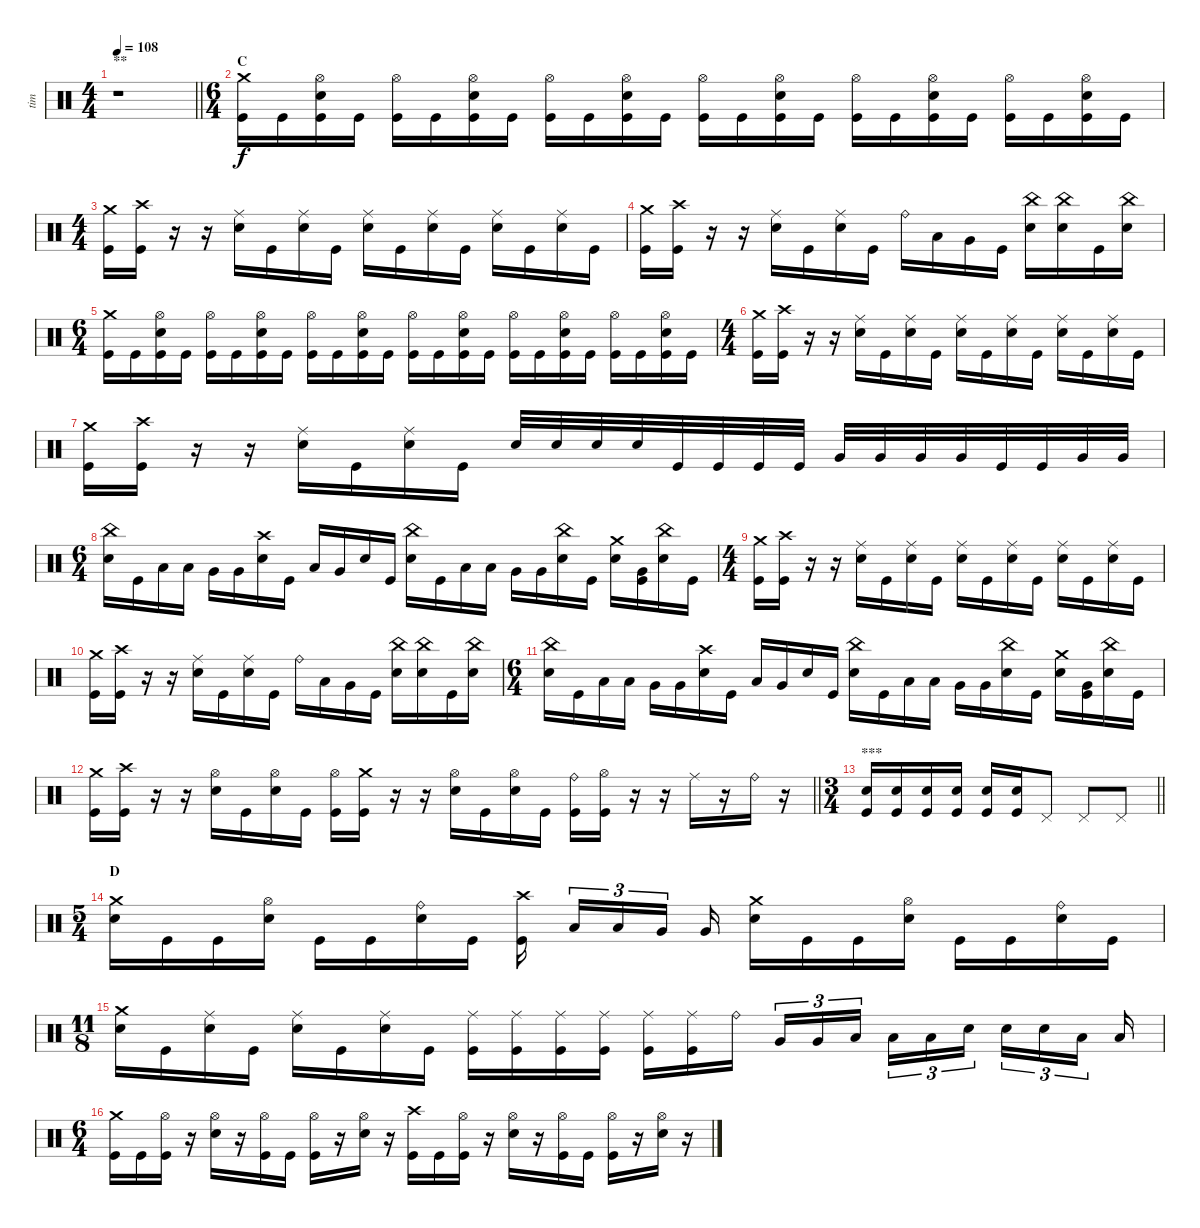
\track ("tim" "tim") {instrument percussion}
\staff {score}
\articulation defaults
\ts (4 4)
\section ("" "**")
\tempo 108
\clef neutral
\barLineRight lightlight
\ks c
r.1{dy f} |
\ts (6 4)
\section ("" "C")
("Crash medium (hit)" "Kick (hit)").16 "Kick (hit)".16 ("Hi-Hat (open)" "Snare (hit) 2" "Kick (hit)").16 "Kick (hit)".16 ("Hi-Hat (open)" "Kick (hit)").16 "Kick (hit)".16 ("Hi-Hat (open)" "Snare (hit) 2" "Kick (hit)").16 "Kick (hit)".16 ("Hi-Hat (open)" "Kick (hit)").16 "Kick (hit)".16 ("Hi-Hat (open)" "Snare (hit) 2" "Kick (hit)").16 "Kick (hit)".16 ("Hi-Hat (open)" "Kick (hit)").16 "Kick (hit)".16 ("Hi-Hat (open)" "Snare (hit) 2" "Kick (hit)").16 "Kick (hit)".16 ("Hi-Hat (open)" "Kick (hit)").16 "Kick (hit)".16 ("Hi-Hat (open)" "Snare (hit) 2" "Kick (hit)").16 "Kick (hit)".16 ("Hi-Hat (open)" "Kick (hit)").16 "Kick (hit)".16 ("Hi-Hat (open)" "Snare (hit) 2" "Kick (hit)").16 "Kick (hit)".16 |
\ts (4 4)
("Crash medium (hit)" "Kick (hit)").16 ("Crash high (hit)" "Kick (hit)").16 r.16 r.16 ("Ride (middle)" "Snare (hit) 2").16 "Kick (hit)".16 ("Ride (middle)" "Snare (hit) 2").16 "Kick (hit)".16 ("Ride (middle)" "Snare (hit) 2").16 "Kick (hit)".16 ("Ride (middle)" "Snare (hit) 2").16 "Kick (hit)".16 ("Ride (middle)" "Snare (hit) 2").16 "Kick (hit)".16 ("Ride (middle)" "Snare (hit) 2").16 "Kick (hit)".16 |
("Crash medium (hit)" "Kick (hit)").16 ("Crash high (hit)" "Kick (hit)").16 r.16 r.16 ("Ride (middle)" "Snare (hit) 2").16 "Kick (hit)".16 ("Ride (middle)" "Snare (hit) 2").16 "Kick (hit)".16 "Ride (bell)".16 "Low Tom (hit)".16 "Very Low Tom (hit)".16 "Kick (hit)".16 ("China (hit)" "Snare (hit) 2").16 ("China (hit)" "Snare (hit) 2").16 "Kick (hit)".16 ("China (hit)" "Snare (hit) 2").16 |
\ts (6 4)
("Crash medium (hit)" "Kick (hit)").16 "Kick (hit)".16 ("Hi-Hat (open)" "Snare (hit) 2" "Kick (hit)").16 "Kick (hit)".16 ("Hi-Hat (open)" "Kick (hit)").16 "Kick (hit)".16 ("Hi-Hat (open)" "Snare (hit) 2" "Kick (hit)").16 "Kick (hit)".16 ("Hi-Hat (open)" "Kick (hit)").16 "Kick (hit)".16 ("Hi-Hat (open)" "Snare (hit) 2" "Kick (hit)").16 "Kick (hit)".16 ("Hi-Hat (open)" "Kick (hit)").16 "Kick (hit)".16 ("Hi-Hat (open)" "Snare (hit) 2" "Kick (hit)").16 "Kick (hit)".16 ("Hi-Hat (open)" "Kick (hit)").16 "Kick (hit)".16 ("Hi-Hat (open)" "Snare (hit) 2" "Kick (hit)").16 "Kick (hit)".16 ("Hi-Hat (open)" "Kick (hit)").16 "Kick (hit)".16 ("Hi-Hat (open)" "Snare (hit) 2" "Kick (hit)").16 "Kick (hit)".16 |
\ts (4 4)
("Crash medium (hit)" "Kick (hit)").16 ("Crash high (hit)" "Kick (hit)").16 r.16 r.16 ("Ride (middle)" "Snare (hit) 2").16 "Kick (hit)".16 ("Ride (middle)" "Snare (hit) 2").16 "Kick (hit)".16 ("Ride (middle)" "Snare (hit) 2").16 "Kick (hit)".16 ("Ride (middle)" "Snare (hit) 2").16 "Kick (hit)".16 ("Ride (middle)" "Snare (hit) 2").16 "Kick (hit)".16 ("Ride (middle)" "Snare (hit) 2").16 "Kick (hit)".16 |
("Crash medium (hit)" "Kick (hit)").16 ("Crash high (hit)" "Kick (hit)").16 r.16 r.16 ("Ride (middle)" "Snare (hit) 2").16 "Kick (hit)".16 ("Ride (middle)" "Snare (hit) 2").16 "Kick (hit)".16 "Snare (hit) 2".32 "Snare (hit) 2".32 "Snare (hit) 2".32 "Snare (hit) 2".32 "Kick (hit)".32 "Kick (hit)".32 "Kick (hit)".32 "Kick (hit)".32 "Very Low Tom (hit)".32 "Very Low Tom (hit)".32 "Very Low Tom (hit)".32 "Very Low Tom (hit)".32 "Kick (hit)".32 "Kick (hit)".32 "Very Low Tom (hit)".32 "Very Low Tom (hit)".32 |
\ts (6 4)
("China (hit)" "Snare (hit) 2").16 "Kick (hit)".16 "Low Tom (hit)".16 "Low Tom (hit)".16 "Very Low Tom (hit)".16 "Very Low Tom (hit)".16 ("Crash high (hit)" "Snare (hit) 2").16 "Kick (hit)".16 "Low Tom (hit)".16 "Very Low Tom (hit)".16 "Snare (hit) 2".16 "Kick (hit)".16 ("China (hit)" "Snare (hit) 2").16 "Kick (hit)".16 "Low Tom (hit)".16 "Low Tom (hit)".16 "Very Low Tom (hit)".16 "Very Low Tom (hit)".16 ("China (hit)" "Snare (hit) 2").16 "Kick (hit)".16 ("Crash medium (hit)" "Snare (hit) 2").16 ("Very Low Tom (hit)" "Kick (hit)").16 ("China (hit)" "Snare (hit) 2").16 "Kick (hit)".16 |
\ts (4 4)
("Crash medium (hit)" "Kick (hit)").16 ("Crash high (hit)" "Kick (hit)").16 r.16 r.16 ("Ride (middle)" "Snare (hit) 2").16 "Kick (hit)".16 ("Ride (middle)" "Snare (hit) 2").16 "Kick (hit)".16 ("Ride (middle)" "Snare (hit) 2").16 "Kick (hit)".16 ("Ride (middle)" "Snare (hit) 2").16 "Kick (hit)".16 ("Ride (middle)" "Snare (hit) 2").16 "Kick (hit)".16 ("Ride (middle)" "Snare (hit) 2").16 "Kick (hit)".16 |
("Crash medium (hit)" "Kick (hit)").16 ("Crash high (hit)" "Kick (hit)").16 r.16 r.16 ("Ride (middle)" "Snare (hit) 2").16 "Kick (hit)".16 ("Ride (middle)" "Snare (hit) 2").16 "Kick (hit)".16 "Ride (bell)".16 "Low Tom (hit)".16 "Very Low Tom (hit)".16 "Kick (hit)".16 ("China (hit)" "Snare (hit) 2").16 ("China (hit)" "Snare (hit) 2").16 "Kick (hit)".16 ("China (hit)" "Snare (hit) 2").16 |
\ts (6 4)
("China (hit)" "Snare (hit) 2").16 "Kick (hit)".16 "Low Tom (hit)".16 "Low Tom (hit)".16 "Very Low Tom (hit)".16 "Very Low Tom (hit)".16 ("Crash high (hit)" "Snare (hit) 2").16 "Kick (hit)".16 "Low Tom (hit)".16 "Very Low Tom (hit)".16 "Snare (hit) 2".16 "Kick (hit)".16 ("China (hit)" "Snare (hit) 2").16 "Kick (hit)".16 "Low Tom (hit)".16 "Low Tom (hit)".16 "Very Low Tom (hit)".16 "Very Low Tom (hit)".16 ("China (hit)" "Snare (hit) 2").16 "Kick (hit)".16 ("Crash medium (hit)" "Snare (hit) 2").16 ("Very Low Tom (hit)" "Kick (hit)").16 ("China (hit)" "Snare (hit) 2").16 "Kick (hit)".16 |
\barLineRight lightlight
("Crash medium (hit)" "Kick (hit)").16 ("Crash high (hit)" "Kick (hit)").16 r.16 r.16 ("Hi-Hat (open)" "Snare (hit) 2").16 "Kick (hit)".16 ("Hi-Hat (open)" "Snare (hit) 2").16 "Kick (hit)".16 ("Hi-Hat (open)" "Kick (hit)").16 ("Crash medium (hit)" "Kick (hit)").16 r.16 r.16 ("Hi-Hat (open)" "Snare (hit) 2").16 "Kick (hit)".16 ("Hi-Hat (open)" "Snare (hit) 2").16 "Kick (hit)".16 ("Ride (bell)" "Kick (hit)").16 ("Hi-Hat (open)" "Kick (hit)").16 r.16 r.16 "Ride (middle)".16 r.16 "Ride (bell)".16 r.16 |
\ts (3 4)
\section ("" "***")
\barLineRight lightlight
("Snare (hit) 2" "Kick (hit)").16 ("Snare (hit) 2" "Kick (hit)").16 ("Snare (hit) 2" "Kick (hit)").16 ("Snare (hit) 2" "Kick (hit)").16 ("Snare (hit) 2" "Kick (hit)").16 ("Snare (hit) 2" "Kick (hit)").16 "Pedal Hi-Hat (hit)".8 "Pedal Hi-Hat (hit)".8 "Pedal Hi-Hat (hit)".8 |
\ts (5 4)
\section ("" "D")
("Crash medium (hit)" "Snare (hit) 2").16 "Kick (hit)".16 "Kick (hit)".16 ("Hi-Hat (open)" "Snare (hit) 2").16 "Kick (hit)".16 "Kick (hit)".16 ("Ride (bell)" "Snare (hit) 2").16 "Kick (hit)".16 ("Crash high (hit)" "Kick (hit)").16{beam splitsecondary} "Low Tom (hit)".16{tu (3 2)} "Low Tom (hit)".16{tu (3 2)} "Very Low Tom (hit)".16{tu (3 2) beam splitsecondary} "Very Low Tom (hit)".16 ("Crash medium (hit)" "Snare (hit) 2").16 "Kick (hit)".16 "Kick (hit)".16 ("Hi-Hat (open)" "Snare (hit) 2").16 "Kick (hit)".16 "Kick (hit)".16 ("Ride (bell)" "Snare (hit) 2").16 "Kick (hit)".16 |
\ts (11 8)
("Crash medium (hit)" "Snare (hit) 2").16 "Kick (hit)".16 ("Ride (middle)" "Snare (hit) 2").16 "Kick (hit)".16 ("Ride (middle)" "Snare (hit) 2").16 "Kick (hit)".16 ("Ride (middle)" "Snare (hit) 2").16 "Kick (hit)".16 ("Ride (middle)" "Kick (hit)").16 ("Ride (middle)" "Kick (hit)").16 ("Ride (middle)" "Kick (hit)").16 ("Ride (middle)" "Kick (hit)").16 ("Ride (middle)" "Kick (hit)").16 ("Ride (middle)" "Kick (hit)").16 "Ride (bell)".16{beam splitsecondary} "Very Low Tom (hit)".16{tu (3 2)} "Very Low Tom (hit)".16{tu (3 2)} "Low Tom (hit)".16{tu (3 2) beam splitsecondary} "Low Tom (hit)".16{tu (3 2)} "Low Tom (hit)".16{tu (3 2)} "Snare (hit) 2".16{tu (3 2) beam splitsecondary} "Snare (hit) 2".16{tu (3 2)} "Snare (hit) 2".16{tu (3 2)} "Low Tom (hit)".16{tu (3 2)} "Low Tom (hit)".16 |
\ts (6 4)
("Crash medium (hit)" "Kick (hit)").16 "Kick (hit)".16 ("Hi-Hat (open)" "Kick (hit)").16 r.16 ("Hi-Hat (open)" "Snare (hit) 2").16 r.16 ("Hi-Hat (open)" "Kick (hit)").16 "Kick (hit)".16 ("Hi-Hat (open)" "Kick (hit)").16 r.16 ("Hi-Hat (open)" "Snare (hit) 2").16 r.16 ("Crash high (hit)" "Kick (hit)").16 "Kick (hit)".16 ("Hi-Hat (open)" "Kick (hit)").16 r.16 ("Hi-Hat (open)" "Snare (hit) 2").16 r.16 ("Hi-Hat (open)" "Kick (hit)").16 "Kick (hit)".16 ("Hi-Hat (open)" "Kick (hit)").16 r.16 ("Hi-Hat (open)" "Snare (hit) 2").16 r.16
